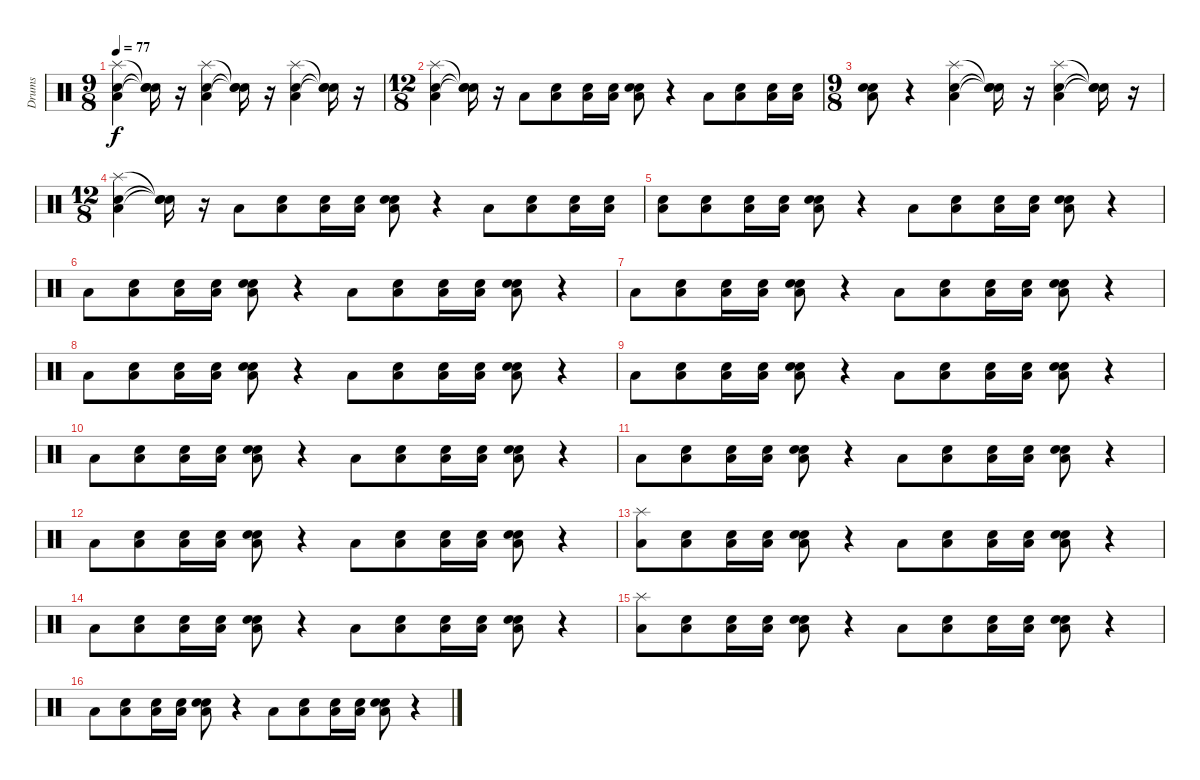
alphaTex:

\track ("Drums" "Drums") {instrument percussion}
\staff {score}
\articulation defaults
\ts (9 8)
\tempo 77
\clef neutral
\ks c
("Electric Snare (hit)" "Low Floor Tom (hit)" "Splash (hit)").4{dy f} ("Snare (hit)"{t} "Snare (hit)"{t} "Snare (hit)"{t}).16 r.16 ("Electric Snare (hit)" "Low Floor Tom (hit)" "Splash (hit)").4 ("Snare (hit)"{t} "Snare (hit)"{t} "Snare (hit)"{t}).16 r.16 ("Electric Snare (hit)" "Low Floor Tom (hit)" "Splash (hit)").4 ("Snare (hit)"{t} "Snare (hit)"{t} "Snare (hit)"{t}).16 r.16 |
\ts (12 8)
("Electric Snare (hit)" "Low Floor Tom (hit)" "Splash (hit)").4 ("Snare (hit)"{t} "Snare (hit)"{t} "Snare (hit)"{t}).16 r.16 "Low Floor Tom (hit)".8 ("Snare (hit)" "Low Floor Tom (hit)").8 ("Snare (hit)" "Low Floor Tom (hit)").16 ("Snare (hit)" "Low Floor Tom (hit)").16 ("Snare (hit)" "Electric Snare (hit)" "Low Floor Tom (hit)").8 r.4 "Low Floor Tom (hit)".8 ("Snare (hit)" "Low Floor Tom (hit)").8 ("Snare (hit)" "Low Floor Tom (hit)").16 ("Snare (hit)" "Low Floor Tom (hit)").16 |
\ts (9 8)
("Snare (hit)" "Electric Snare (hit)" "Low Floor Tom (hit)").8 r.4 ("Electric Snare (hit)" "Low Floor Tom (hit)" "Splash (hit)").4 ("Snare (hit)"{t} "Snare (hit)"{t} "Snare (hit)"{t}).16 r.16 ("Electric Snare (hit)" "Low Floor Tom (hit)" "Splash (hit)").4 ("Snare (hit)"{t} "Snare (hit)"{t} "Snare (hit)"{t}).16 r.16 |
\ts (12 8)
("Electric Snare (hit)" "Low Floor Tom (hit)" "Splash (hit)").4 ("Snare (hit)"{t} "Snare (hit)"{t} "Snare (hit)"{t}).16 r.16 "Low Floor Tom (hit)".8 ("Snare (hit)" "Low Floor Tom (hit)").8 ("Snare (hit)" "Low Floor Tom (hit)").16 ("Snare (hit)" "Low Floor Tom (hit)").16 ("Snare (hit)" "Electric Snare (hit)" "Low Floor Tom (hit)").8 r.4 "Low Floor Tom (hit)".8 ("Snare (hit)" "Low Floor Tom (hit)").8 ("Snare (hit)" "Low Floor Tom (hit)").16 ("Snare (hit)" "Low Floor Tom (hit)").16 |
("Snare (hit)" "Low Floor Tom (hit)").8 ("Snare (hit)" "Low Floor Tom (hit)").8 ("Snare (hit)" "Low Floor Tom (hit)").16 ("Snare (hit)" "Low Floor Tom (hit)").16 ("Snare (hit)" "Electric Snare (hit)" "Low Floor Tom (hit)").8 r.4 "Low Floor Tom (hit)".8 ("Snare (hit)" "Low Floor Tom (hit)").8 ("Snare (hit)" "Low Floor Tom (hit)").16 ("Snare (hit)" "Low Floor Tom (hit)").16 ("Snare (hit)" "Electric Snare (hit)" "Low Floor Tom (hit)").8 r.4 |
"Low Floor Tom (hit)".8 ("Snare (hit)" "Low Floor Tom (hit)").8 ("Snare (hit)" "Low Floor Tom (hit)").16 ("Snare (hit)" "Low Floor Tom (hit)").16 ("Snare (hit)" "Electric Snare (hit)" "Low Floor Tom (hit)").8 r.4 "Low Floor Tom (hit)".8 ("Snare (hit)" "Low Floor Tom (hit)").8 ("Snare (hit)" "Low Floor Tom (hit)").16 ("Snare (hit)" "Low Floor Tom (hit)").16 ("Snare (hit)" "Electric Snare (hit)" "Low Floor Tom (hit)").8 r.4 |
"Low Floor Tom (hit)".8 ("Snare (hit)" "Low Floor Tom (hit)").8 ("Snare (hit)" "Low Floor Tom (hit)").16 ("Snare (hit)" "Low Floor Tom (hit)").16 ("Snare (hit)" "Electric Snare (hit)" "Low Floor Tom (hit)").8 r.4 "Low Floor Tom (hit)".8 ("Snare (hit)" "Low Floor Tom (hit)").8 ("Snare (hit)" "Low Floor Tom (hit)").16 ("Snare (hit)" "Low Floor Tom (hit)").16 ("Snare (hit)" "Electric Snare (hit)" "Low Floor Tom (hit)").8 r.4 |
"Low Floor Tom (hit)".8 ("Snare (hit)" "Low Floor Tom (hit)").8 ("Snare (hit)" "Low Floor Tom (hit)").16 ("Snare (hit)" "Low Floor Tom (hit)").16 ("Snare (hit)" "Electric Snare (hit)" "Low Floor Tom (hit)").8 r.4 "Low Floor Tom (hit)".8 ("Snare (hit)" "Low Floor Tom (hit)").8 ("Snare (hit)" "Low Floor Tom (hit)").16 ("Snare (hit)" "Low Floor Tom (hit)").16 ("Snare (hit)" "Electric Snare (hit)" "Low Floor Tom (hit)").8 r.4 |
"Low Floor Tom (hit)".8 ("Snare (hit)" "Low Floor Tom (hit)").8 ("Snare (hit)" "Low Floor Tom (hit)").16 ("Snare (hit)" "Low Floor Tom (hit)").16 ("Snare (hit)" "Electric Snare (hit)" "Low Floor Tom (hit)").8 r.4 "Low Floor Tom (hit)".8 ("Snare (hit)" "Low Floor Tom (hit)").8 ("Snare (hit)" "Low Floor Tom (hit)").16 ("Snare (hit)" "Low Floor Tom (hit)").16 ("Snare (hit)" "Electric Snare (hit)" "Low Floor Tom (hit)").8 r.4 |
"Low Floor Tom (hit)".8 ("Snare (hit)" "Low Floor Tom (hit)").8 ("Snare (hit)" "Low Floor Tom (hit)").16 ("Snare (hit)" "Low Floor Tom (hit)").16 ("Snare (hit)" "Electric Snare (hit)" "Low Floor Tom (hit)").8 r.4 "Low Floor Tom (hit)".8 ("Snare (hit)" "Low Floor Tom (hit)").8 ("Snare (hit)" "Low Floor Tom (hit)").16 ("Snare (hit)" "Low Floor Tom (hit)").16 ("Snare (hit)" "Electric Snare (hit)" "Low Floor Tom (hit)").8 r.4 |
"Low Floor Tom (hit)".8 ("Snare (hit)" "Low Floor Tom (hit)").8 ("Snare (hit)" "Low Floor Tom (hit)").16 ("Snare (hit)" "Low Floor Tom (hit)").16 ("Snare (hit)" "Electric Snare (hit)" "Low Floor Tom (hit)").8 r.4 "Low Floor Tom (hit)".8 ("Snare (hit)" "Low Floor Tom (hit)").8 ("Snare (hit)" "Low Floor Tom (hit)").16 ("Snare (hit)" "Low Floor Tom (hit)").16 ("Snare (hit)" "Electric Snare (hit)" "Low Floor Tom (hit)").8 r.4 |
"Low Floor Tom (hit)".8 ("Snare (hit)" "Low Floor Tom (hit)").8 ("Snare (hit)" "Low Floor Tom (hit)").16 ("Snare (hit)" "Low Floor Tom (hit)").16 ("Snare (hit)" "Electric Snare (hit)" "Low Floor Tom (hit)").8 r.4 "Low Floor Tom (hit)".8 ("Snare (hit)" "Low Floor Tom (hit)").8 ("Snare (hit)" "Low Floor Tom (hit)").16 ("Snare (hit)" "Low Floor Tom (hit)").16 ("Snare (hit)" "Electric Snare (hit)" "Low Floor Tom (hit)").8 r.4 |
("Low Floor Tom (hit)" "Splash (hit)").8 ("Snare (hit)" "Low Floor Tom (hit)").8 ("Snare (hit)" "Low Floor Tom (hit)").16 ("Snare (hit)" "Low Floor Tom (hit)").16 ("Snare (hit)" "Electric Snare (hit)" "Low Floor Tom (hit)").8 r.4 "Low Floor Tom (hit)".8 ("Snare (hit)" "Low Floor Tom (hit)").8 ("Snare (hit)" "Low Floor Tom (hit)").16 ("Snare (hit)" "Low Floor Tom (hit)").16 ("Snare (hit)" "Electric Snare (hit)" "Low Floor Tom (hit)").8 r.4 |
"Low Floor Tom (hit)".8 ("Snare (hit)" "Low Floor Tom (hit)").8 ("Snare (hit)" "Low Floor Tom (hit)").16 ("Snare (hit)" "Low Floor Tom (hit)").16 ("Snare (hit)" "Electric Snare (hit)" "Low Floor Tom (hit)").8 r.4 "Low Floor Tom (hit)".8 ("Snare (hit)" "Low Floor Tom (hit)").8 ("Snare (hit)" "Low Floor Tom (hit)").16 ("Snare (hit)" "Low Floor Tom (hit)").16 ("Snare (hit)" "Electric Snare (hit)" "Low Floor Tom (hit)").8 r.4 |
("Low Floor Tom (hit)" "Splash (hit)").8 ("Snare (hit)" "Low Floor Tom (hit)").8 ("Snare (hit)" "Low Floor Tom (hit)").16 ("Snare (hit)" "Low Floor Tom (hit)").16 ("Snare (hit)" "Electric Snare (hit)" "Low Floor Tom (hit)").8 r.4 "Low Floor Tom (hit)".8 ("Snare (hit)" "Low Floor Tom (hit)").8 ("Snare (hit)" "Low Floor Tom (hit)").16 ("Snare (hit)" "Low Floor Tom (hit)").16 ("Snare (hit)" "Electric Snare (hit)" "Low Floor Tom (hit)").8 r.4 |
"Low Floor Tom (hit)".8 ("Snare (hit)" "Low Floor Tom (hit)").8 ("Snare (hit)" "Low Floor Tom (hit)").16 ("Snare (hit)" "Low Floor Tom (hit)").16 ("Snare (hit)" "Electric Snare (hit)" "Low Floor Tom (hit)").8 r.4 "Low Floor Tom (hit)".8 ("Snare (hit)" "Low Floor Tom (hit)").8 ("Snare (hit)" "Low Floor Tom (hit)").16 ("Snare (hit)" "Low Floor Tom (hit)").16 ("Snare (hit)" "Electric Snare (hit)" "Low Floor Tom (hit)").8 r.4
